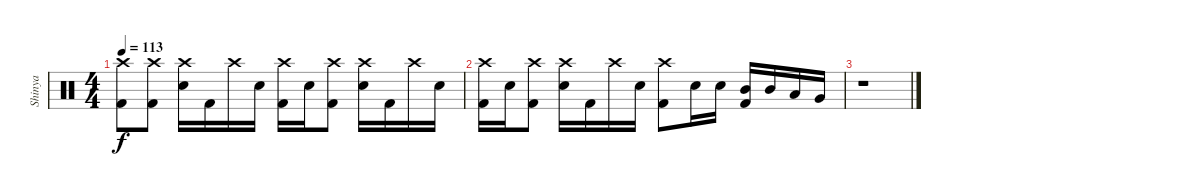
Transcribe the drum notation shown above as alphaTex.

\track ("Shinya" "Shinya") {instrument percussion}
\staff {score}
\articulation defaults
\ts (4 4)
\tempo 113
\clef neutral
\ks c
("Crash high (hit)" "Kick (hit) 2").8{dy f} ("Crash high (hit)" "Kick (hit) 2").8 ("Crash high (hit)" "Electric Snare (hit)").16 "Kick (hit) 2".16 "Crash high (hit)".16 "Electric Snare (hit)".16 ("Crash high (hit)" "Kick (hit) 2").16 "Electric Snare (hit)".16 ("Crash high (hit)" "Kick (hit) 2").8 ("Crash high (hit)" "Electric Snare (hit)").16 "Kick (hit) 2".16 "Crash high (hit)".16 "Electric Snare (hit)".16 |
("Crash high (hit)" "Kick (hit) 2").16 "Electric Snare (hit)".16 ("Crash high (hit)" "Kick (hit) 2").8 ("Crash high (hit)" "Electric Snare (hit)").16 "Kick (hit) 2".16 "Crash high (hit)".16 "Electric Snare (hit)".16 ("Crash high (hit)" "Kick (hit) 2").8 "Electric Snare (hit)".16 "Electric Snare (hit)".16 ("Mid Tom (hit)" "Kick (hit) 2").16 "Mid Tom (hit)".16 "Low Tom (hit)".16 "Very Low Tom (hit)".16 |
r.1
